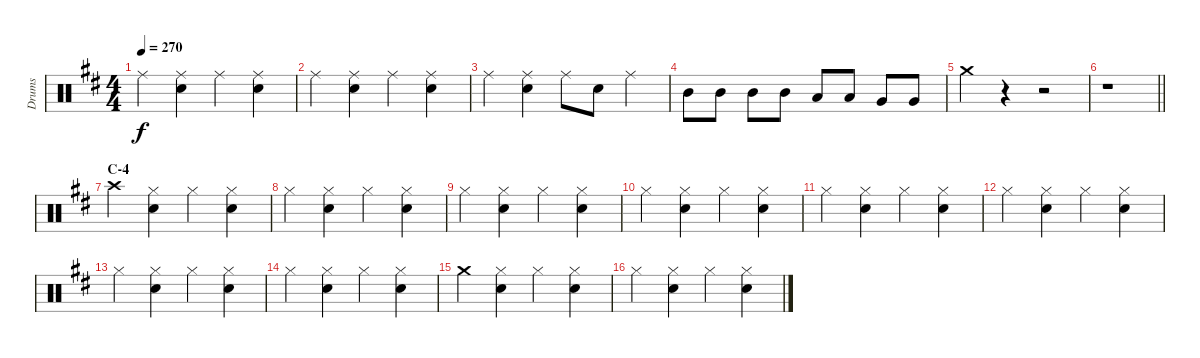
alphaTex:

\track ("Drums" "Drums") {instrument percussion}
\staff {score}
\articulation defaults
\ts (4 4)
\tempo 270
\clef neutral
\ks d "Ride (middle)".4{dy f}
("Ride (middle)" "Snare (hit) 2").4 "Ride (middle)".4 ("Ride (middle)" "Snare (hit) 2").4 |
"Ride (middle)".4 ("Ride (middle)" "Snare (hit) 2").4 "Ride (middle)".4 ("Ride (middle)" "Snare (hit) 2").4 |
"Ride (middle)".4 ("Ride (middle)" "Snare (hit) 2").4 "Ride (middle)".8 "Snare (hit) 2".8 "Ride (middle)".4 |
"Mid Tom (hit)".8 "Mid Tom (hit)".8 "Mid Tom (hit)".8 "Mid Tom (hit)".8 "Low Tom (hit)".8 "Low Tom (hit)".8 "Very Low Tom (hit)".8 "Very Low Tom (hit)".8 |
"Crash medium (hit)".4 r.4 r.2 |
\barLineRight lightlight
r.1 |
\section ("" "C-4")
"Crash high (hit)".4 ("Hi-Hat (closed)" "Snare (hit) 2").4 "Hi-Hat (closed)".4 ("Hi-Hat (closed)" "Snare (hit) 2").4 |
"Hi-Hat (closed)".4 ("Hi-Hat (closed)" "Snare (hit) 2").4 "Hi-Hat (closed)".4 ("Hi-Hat (closed)" "Snare (hit) 2").4 |
"Hi-Hat (closed)".4 ("Hi-Hat (closed)" "Snare (hit) 2").4 "Hi-Hat (closed)".4 ("Hi-Hat (closed)" "Snare (hit) 2").4 |
"Hi-Hat (closed)".4 ("Hi-Hat (closed)" "Snare (hit) 2").4 "Hi-Hat (closed)".4 ("Hi-Hat (closed)" "Snare (hit) 2").4 |
"Hi-Hat (closed)".4 ("Hi-Hat (closed)" "Snare (hit) 2").4 "Hi-Hat (closed)".4 ("Hi-Hat (closed)" "Snare (hit) 2").4 |
"Hi-Hat (closed)".4 ("Hi-Hat (closed)" "Snare (hit) 2").4 "Hi-Hat (closed)".4 ("Hi-Hat (closed)" "Snare (hit) 2").4 |
"Hi-Hat (closed)".4 ("Hi-Hat (closed)" "Snare (hit) 2").4 "Hi-Hat (closed)".4 ("Hi-Hat (closed)" "Snare (hit) 2").4 |
"Hi-Hat (closed)".4 ("Hi-Hat (closed)" "Snare (hit) 2").4 "Hi-Hat (closed)".4 ("Hi-Hat (closed)" "Snare (hit) 2").4 |
"Crash medium (hit)".4 ("Hi-Hat (closed)" "Snare (hit) 2").4 "Hi-Hat (closed)".4 ("Hi-Hat (closed)" "Snare (hit) 2").4 |
"Hi-Hat (closed)".4 ("Hi-Hat (closed)" "Snare (hit) 2").4 "Hi-Hat (closed)".4 ("Hi-Hat (closed)" "Snare (hit) 2").4
